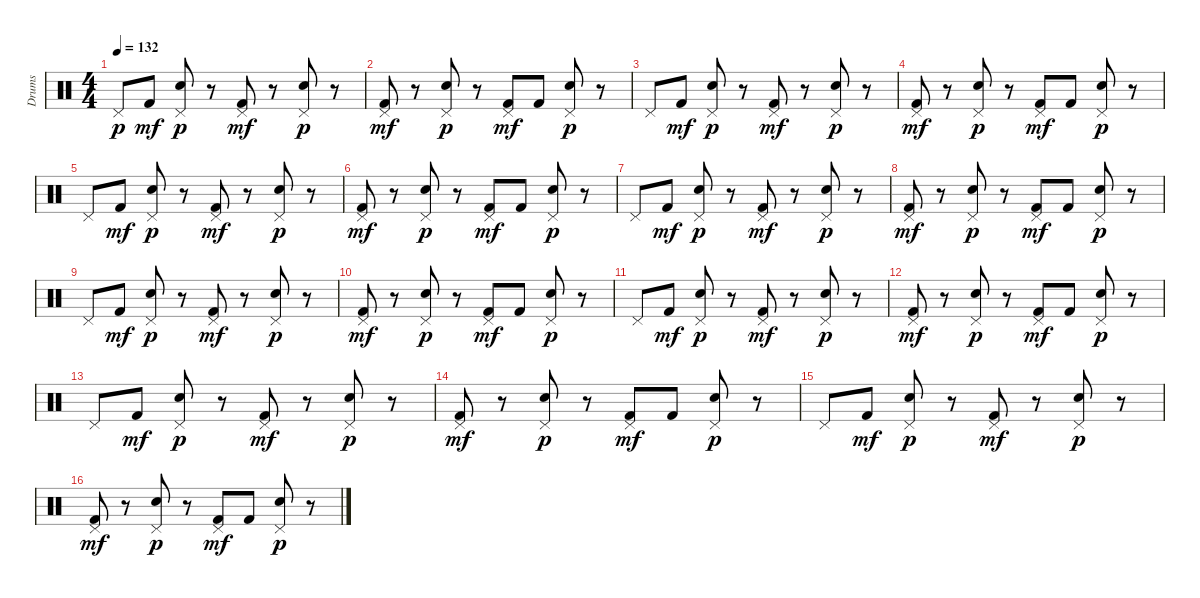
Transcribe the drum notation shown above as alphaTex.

\track ("Drums" "Drums") {instrument percussion}
\staff {score}
\articulation defaults
\ts (4 4)
\tempo 132
\clef neutral
\ks c "Pedal Hi-Hat (hit)".8{dy p} "Kick (hit) 2".8{dy mf}
("Pedal Hi-Hat (hit)" "Snare (hit) 2").8{dy p} r.8 ("Pedal Hi-Hat (hit)" "Kick (hit) 2").8{dy mf} r.8 ("Pedal Hi-Hat (hit)" "Snare (hit) 2").8{dy p} r.8 |
("Pedal Hi-Hat (hit)" "Kick (hit) 2").8{dy mf} r.8 ("Pedal Hi-Hat (hit)" "Snare (hit) 2").8{dy p} r.8 ("Pedal Hi-Hat (hit)" "Kick (hit) 2").8{dy mf} "Kick (hit) 2".8 ("Pedal Hi-Hat (hit)" "Snare (hit) 2").8{dy p} r.8 |
"Pedal Hi-Hat (hit)".8 "Kick (hit) 2".8{dy mf} ("Pedal Hi-Hat (hit)" "Snare (hit) 2").8{dy p} r.8 ("Pedal Hi-Hat (hit)" "Kick (hit) 2").8{dy mf} r.8 ("Pedal Hi-Hat (hit)" "Snare (hit) 2").8{dy p} r.8 |
("Pedal Hi-Hat (hit)" "Kick (hit) 2").8{dy mf} r.8 ("Pedal Hi-Hat (hit)" "Snare (hit) 2").8{dy p} r.8 ("Pedal Hi-Hat (hit)" "Kick (hit) 2").8{dy mf} "Kick (hit) 2".8 ("Pedal Hi-Hat (hit)" "Snare (hit) 2").8{dy p} r.8 |
"Pedal Hi-Hat (hit)".8 "Kick (hit) 2".8{dy mf} ("Pedal Hi-Hat (hit)" "Snare (hit) 2").8{dy p} r.8 ("Pedal Hi-Hat (hit)" "Kick (hit) 2").8{dy mf} r.8 ("Pedal Hi-Hat (hit)" "Snare (hit) 2").8{dy p} r.8 |
("Pedal Hi-Hat (hit)" "Kick (hit) 2").8{dy mf} r.8 ("Pedal Hi-Hat (hit)" "Snare (hit) 2").8{dy p} r.8 ("Pedal Hi-Hat (hit)" "Kick (hit) 2").8{dy mf} "Kick (hit) 2".8 ("Pedal Hi-Hat (hit)" "Snare (hit) 2").8{dy p} r.8 |
"Pedal Hi-Hat (hit)".8 "Kick (hit) 2".8{dy mf} ("Pedal Hi-Hat (hit)" "Snare (hit) 2").8{dy p} r.8 ("Pedal Hi-Hat (hit)" "Kick (hit) 2").8{dy mf} r.8 ("Pedal Hi-Hat (hit)" "Snare (hit) 2").8{dy p} r.8 |
("Pedal Hi-Hat (hit)" "Kick (hit) 2").8{dy mf} r.8 ("Pedal Hi-Hat (hit)" "Snare (hit) 2").8{dy p} r.8 ("Pedal Hi-Hat (hit)" "Kick (hit) 2").8{dy mf} "Kick (hit) 2".8 ("Pedal Hi-Hat (hit)" "Snare (hit) 2").8{dy p} r.8 |
"Pedal Hi-Hat (hit)".8 "Kick (hit) 2".8{dy mf} ("Pedal Hi-Hat (hit)" "Snare (hit) 2").8{dy p} r.8 ("Pedal Hi-Hat (hit)" "Kick (hit) 2").8{dy mf} r.8 ("Pedal Hi-Hat (hit)" "Snare (hit) 2").8{dy p} r.8 |
("Pedal Hi-Hat (hit)" "Kick (hit) 2").8{dy mf} r.8 ("Pedal Hi-Hat (hit)" "Snare (hit) 2").8{dy p} r.8 ("Pedal Hi-Hat (hit)" "Kick (hit) 2").8{dy mf} "Kick (hit) 2".8 ("Pedal Hi-Hat (hit)" "Snare (hit) 2").8{dy p} r.8 |
"Pedal Hi-Hat (hit)".8 "Kick (hit) 2".8{dy mf} ("Pedal Hi-Hat (hit)" "Snare (hit) 2").8{dy p} r.8 ("Pedal Hi-Hat (hit)" "Kick (hit) 2").8{dy mf} r.8 ("Pedal Hi-Hat (hit)" "Snare (hit) 2").8{dy p} r.8 |
("Pedal Hi-Hat (hit)" "Kick (hit) 2").8{dy mf} r.8 ("Pedal Hi-Hat (hit)" "Snare (hit) 2").8{dy p} r.8 ("Pedal Hi-Hat (hit)" "Kick (hit) 2").8{dy mf} "Kick (hit) 2".8 ("Pedal Hi-Hat (hit)" "Snare (hit) 2").8{dy p} r.8 |
"Pedal Hi-Hat (hit)".8 "Kick (hit) 2".8{dy mf} ("Pedal Hi-Hat (hit)" "Snare (hit) 2").8{dy p} r.8 ("Pedal Hi-Hat (hit)" "Kick (hit) 2").8{dy mf} r.8 ("Pedal Hi-Hat (hit)" "Snare (hit) 2").8{dy p} r.8 |
("Pedal Hi-Hat (hit)" "Kick (hit) 2").8{dy mf} r.8 ("Pedal Hi-Hat (hit)" "Snare (hit) 2").8{dy p} r.8 ("Pedal Hi-Hat (hit)" "Kick (hit) 2").8{dy mf} "Kick (hit) 2".8 ("Pedal Hi-Hat (hit)" "Snare (hit) 2").8{dy p} r.8 |
"Pedal Hi-Hat (hit)".8 "Kick (hit) 2".8{dy mf} ("Pedal Hi-Hat (hit)" "Snare (hit) 2").8{dy p} r.8 ("Pedal Hi-Hat (hit)" "Kick (hit) 2").8{dy mf} r.8 ("Pedal Hi-Hat (hit)" "Snare (hit) 2").8{dy p} r.8 |
("Pedal Hi-Hat (hit)" "Kick (hit) 2").8{dy mf} r.8 ("Pedal Hi-Hat (hit)" "Snare (hit) 2").8{dy p} r.8 ("Pedal Hi-Hat (hit)" "Kick (hit) 2").8{dy mf} "Kick (hit) 2".8 ("Pedal Hi-Hat (hit)" "Snare (hit) 2").8{dy p} r.8
